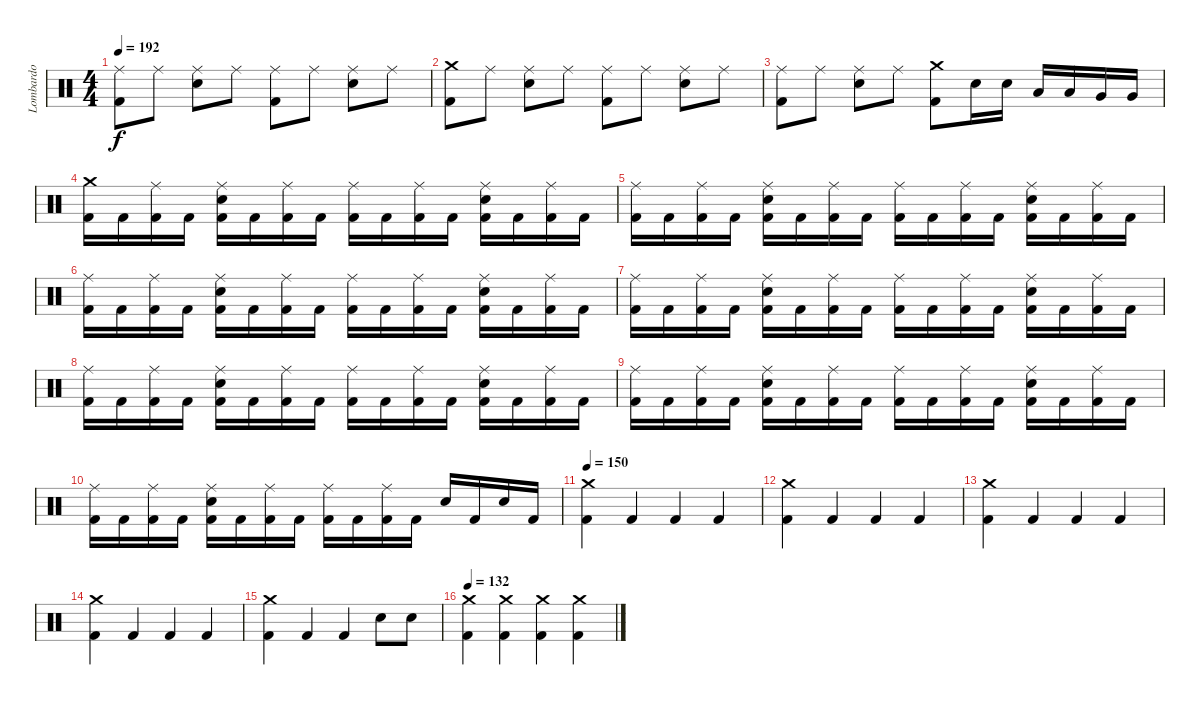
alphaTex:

\track ("Lombardo" "Lombardo") {instrument percussion}
\staff {score}
\articulation defaults
\ts (4 4)
\tempo 192
\clef neutral
\ks c
("Ride (middle)" "Kick (hit) 2").8{dy f} "Ride (middle)".8 ("Ride (middle)" "Snare (hit) 2").8 "Ride (middle)".8 ("Ride (middle)" "Kick (hit) 2").8 "Ride (middle)".8 ("Ride (middle)" "Snare (hit) 2").8 "Ride (middle)".8 |
("Crash medium (hit)" "Kick (hit) 2").8 "Ride (middle)".8 ("Ride (middle)" "Snare (hit) 2").8 "Ride (middle)".8 ("Ride (middle)" "Kick (hit) 2").8 "Ride (middle)".8 ("Ride (middle)" "Snare (hit) 2").8 "Ride (middle)".8 |
("Ride (middle)" "Kick (hit) 2").8 "Ride (middle)".8 ("Ride (middle)" "Snare (hit) 2").8 "Ride (middle)".8 ("Crash medium (hit)" "Kick (hit) 2").8 "Snare (hit) 2".16 "Snare (hit) 2".16 "Low Tom (hit)".16 "Low Tom (hit)".16 "Very Low Tom (hit)".16 "Very Low Tom (hit)".16 |
("Crash medium (hit)" "Kick (hit) 2").16 "Kick (hit) 2".16 ("Ride (middle)" "Kick (hit) 2").16 "Kick (hit) 2".16 ("Ride (middle)" "Snare (hit) 2" "Kick (hit) 2").16 "Kick (hit) 2".16 ("Ride (middle)" "Kick (hit) 2").16 "Kick (hit) 2".16 ("Ride (middle)" "Kick (hit) 2").16 "Kick (hit) 2".16 ("Ride (middle)" "Kick (hit) 2").16 "Kick (hit) 2".16 ("Ride (middle)" "Snare (hit) 2" "Kick (hit) 2").16 "Kick (hit) 2".16 ("Ride (middle)" "Kick (hit) 2").16 "Kick (hit) 2".16 |
("Ride (middle)" "Kick (hit) 2").16 "Kick (hit) 2".16 ("Ride (middle)" "Kick (hit) 2").16 "Kick (hit) 2".16 ("Ride (middle)" "Snare (hit) 2" "Kick (hit) 2").16 "Kick (hit) 2".16 ("Ride (middle)" "Kick (hit) 2").16 "Kick (hit) 2".16 ("Ride (middle)" "Kick (hit) 2").16 "Kick (hit) 2".16 ("Ride (middle)" "Kick (hit) 2").16 "Kick (hit) 2".16 ("Ride (middle)" "Snare (hit) 2" "Kick (hit) 2").16 "Kick (hit) 2".16 ("Ride (middle)" "Kick (hit) 2").16 "Kick (hit) 2".16 |
("Ride (middle)" "Kick (hit) 2").16 "Kick (hit) 2".16 ("Ride (middle)" "Kick (hit) 2").16 "Kick (hit) 2".16 ("Ride (middle)" "Snare (hit) 2" "Kick (hit) 2").16 "Kick (hit) 2".16 ("Ride (middle)" "Kick (hit) 2").16 "Kick (hit) 2".16 ("Ride (middle)" "Kick (hit) 2").16 "Kick (hit) 2".16 ("Ride (middle)" "Kick (hit) 2").16 "Kick (hit) 2".16 ("Ride (middle)" "Snare (hit) 2" "Kick (hit) 2").16 "Kick (hit) 2".16 ("Ride (middle)" "Kick (hit) 2").16 "Kick (hit) 2".16 |
("Ride (middle)" "Kick (hit) 2").16 "Kick (hit) 2".16 ("Ride (middle)" "Kick (hit) 2").16 "Kick (hit) 2".16 ("Ride (middle)" "Snare (hit) 2" "Kick (hit) 2").16 "Kick (hit) 2".16 ("Ride (middle)" "Kick (hit) 2").16 "Kick (hit) 2".16 ("Ride (middle)" "Kick (hit) 2").16 "Kick (hit) 2".16 ("Ride (middle)" "Kick (hit) 2").16 "Kick (hit) 2".16 ("Ride (middle)" "Snare (hit) 2" "Kick (hit) 2").16 "Kick (hit) 2".16 ("Ride (middle)" "Kick (hit) 2").16 "Kick (hit) 2".16 |
("Ride (middle)" "Kick (hit) 2").16 "Kick (hit) 2".16 ("Ride (middle)" "Kick (hit) 2").16 "Kick (hit) 2".16 ("Ride (middle)" "Snare (hit) 2" "Kick (hit) 2").16 "Kick (hit) 2".16 ("Ride (middle)" "Kick (hit) 2").16 "Kick (hit) 2".16 ("Ride (middle)" "Kick (hit) 2").16 "Kick (hit) 2".16 ("Ride (middle)" "Kick (hit) 2").16 "Kick (hit) 2".16 ("Ride (middle)" "Snare (hit) 2" "Kick (hit) 2").16 "Kick (hit) 2".16 ("Ride (middle)" "Kick (hit) 2").16 "Kick (hit) 2".16 |
("Ride (middle)" "Kick (hit) 2").16 "Kick (hit) 2".16 ("Ride (middle)" "Kick (hit) 2").16 "Kick (hit) 2".16 ("Ride (middle)" "Snare (hit) 2" "Kick (hit) 2").16 "Kick (hit) 2".16 ("Ride (middle)" "Kick (hit) 2").16 "Kick (hit) 2".16 ("Ride (middle)" "Kick (hit) 2").16 "Kick (hit) 2".16 ("Ride (middle)" "Kick (hit) 2").16 "Kick (hit) 2".16 ("Ride (middle)" "Snare (hit) 2" "Kick (hit) 2").16 "Kick (hit) 2".16 ("Ride (middle)" "Kick (hit) 2").16 "Kick (hit) 2".16 |
("Ride (middle)" "Kick (hit) 2").16 "Kick (hit) 2".16 ("Ride (middle)" "Kick (hit) 2").16 "Kick (hit) 2".16 ("Ride (middle)" "Snare (hit) 2" "Kick (hit) 2").16 "Kick (hit) 2".16 ("Ride (middle)" "Kick (hit) 2").16 "Kick (hit) 2".16 ("Ride (middle)" "Kick (hit) 2").16 "Kick (hit) 2".16 ("Ride (middle)" "Kick (hit) 2").16 "Kick (hit) 2".16 "Snare (hit) 2".16 "Kick (hit) 2".16 "Snare (hit) 2".16 "Kick (hit) 2".16 |
\tempo 132
\tempo 150
("Crash medium (hit)" "Kick (hit) 2").4 "Kick (hit) 2".4 "Kick (hit) 2".4 "Kick (hit) 2".4 |
("Crash medium (hit)" "Kick (hit) 2").4 "Kick (hit) 2".4 "Kick (hit) 2".4 "Kick (hit) 2".4 |
("Crash medium (hit)" "Kick (hit) 2").4 "Kick (hit) 2".4 "Kick (hit) 2".4 "Kick (hit) 2".4 |
("Crash medium (hit)" "Kick (hit) 2").4 "Kick (hit) 2".4 "Kick (hit) 2".4 "Kick (hit) 2".4 |
("Crash medium (hit)" "Kick (hit) 2").4 "Kick (hit) 2".4 "Kick (hit) 2".4 "Snare (hit) 2".8 "Snare (hit) 2".8 |
\tempo 132
("Crash medium (hit)" "Kick (hit) 2").4 ("Crash medium (hit)" "Kick (hit) 2").4 ("Crash medium (hit)" "Kick (hit) 2").4 ("Crash medium (hit)" "Kick (hit) 2").4
